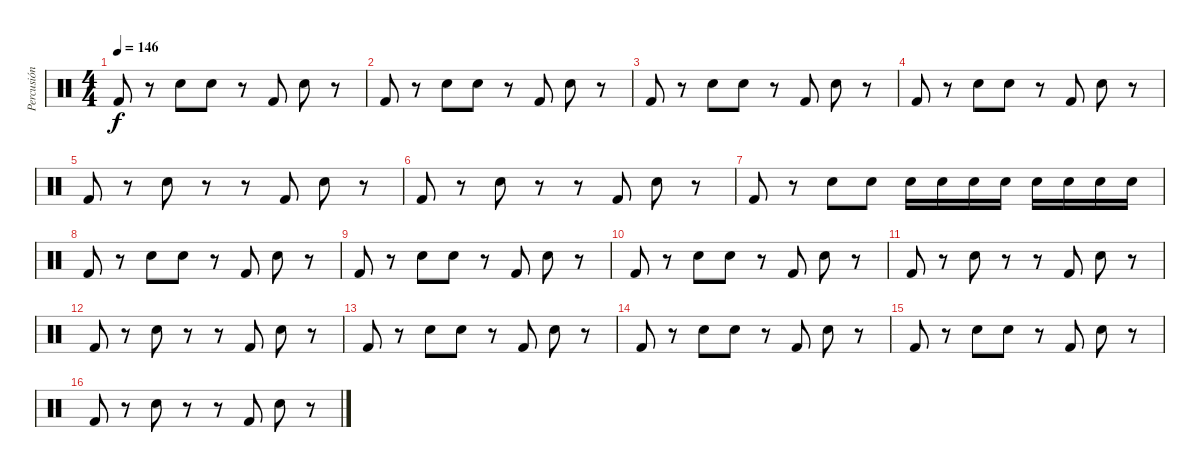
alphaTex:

\track ("Percusión" "Percusión") {instrument percussion}
\staff {score}
\articulation defaults
\ts (4 4)
\tempo 146
\clef neutral
\ks c "Kick (hit) 2".8{dy f}
r.8 "Snare (hit) 2".8 "Snare (hit) 2".8 r.8 "Kick (hit) 2".8 "Snare (hit) 2".8 r.8 |
"Kick (hit) 2".8 r.8 "Snare (hit) 2".8 "Snare (hit) 2".8 r.8 "Kick (hit) 2".8 "Snare (hit) 2".8 r.8 |
"Kick (hit) 2".8 r.8 "Snare (hit) 2".8 "Snare (hit) 2".8 r.8 "Kick (hit) 2".8 "Snare (hit) 2".8 r.8 |
"Kick (hit) 2".8 r.8 "Snare (hit) 2".8 "Snare (hit) 2".8 r.8 "Kick (hit) 2".8 "Snare (hit) 2".8 r.8 |
"Kick (hit) 2".8 r.8 "Snare (hit) 2".8 r.8 r.8 "Kick (hit) 2".8 "Snare (hit) 2".8 r.8 |
"Kick (hit) 2".8 r.8 "Snare (hit) 2".8 r.8 r.8 "Kick (hit) 2".8 "Snare (hit) 2".8 r.8 |
"Kick (hit) 2".8 r.8 "Snare (hit) 2".8 "Snare (hit) 2".8 "Snare (hit) 2".16 "Snare (hit) 2".16 "Snare (hit) 2".16 "Snare (hit) 2".16 "Snare (hit) 2".16 "Snare (hit) 2".16 "Snare (hit) 2".16 "Snare (hit) 2".16 |
"Kick (hit) 2".8 r.8 "Snare (hit) 2".8 "Snare (hit) 2".8 r.8 "Kick (hit) 2".8 "Snare (hit) 2".8 r.8 |
"Kick (hit) 2".8 r.8 "Snare (hit) 2".8 "Snare (hit) 2".8 r.8 "Kick (hit) 2".8 "Snare (hit) 2".8 r.8 |
"Kick (hit) 2".8 r.8 "Snare (hit) 2".8 "Snare (hit) 2".8 r.8 "Kick (hit) 2".8 "Snare (hit) 2".8 r.8 |
"Kick (hit) 2".8 r.8 "Snare (hit) 2".8 r.8 r.8 "Kick (hit) 2".8 "Snare (hit) 2".8 r.8 |
"Kick (hit) 2".8 r.8 "Snare (hit) 2".8 r.8 r.8 "Kick (hit) 2".8 "Snare (hit) 2".8 r.8 |
"Kick (hit) 2".8 r.8 "Snare (hit) 2".8 "Snare (hit) 2".8 r.8 "Kick (hit) 2".8 "Snare (hit) 2".8 r.8 |
"Kick (hit) 2".8 r.8 "Snare (hit) 2".8 "Snare (hit) 2".8 r.8 "Kick (hit) 2".8 "Snare (hit) 2".8 r.8 |
"Kick (hit) 2".8 r.8 "Snare (hit) 2".8 "Snare (hit) 2".8 r.8 "Kick (hit) 2".8 "Snare (hit) 2".8 r.8 |
"Kick (hit) 2".8 r.8 "Snare (hit) 2".8 r.8 r.8 "Kick (hit) 2".8 "Snare (hit) 2".8 r.8
